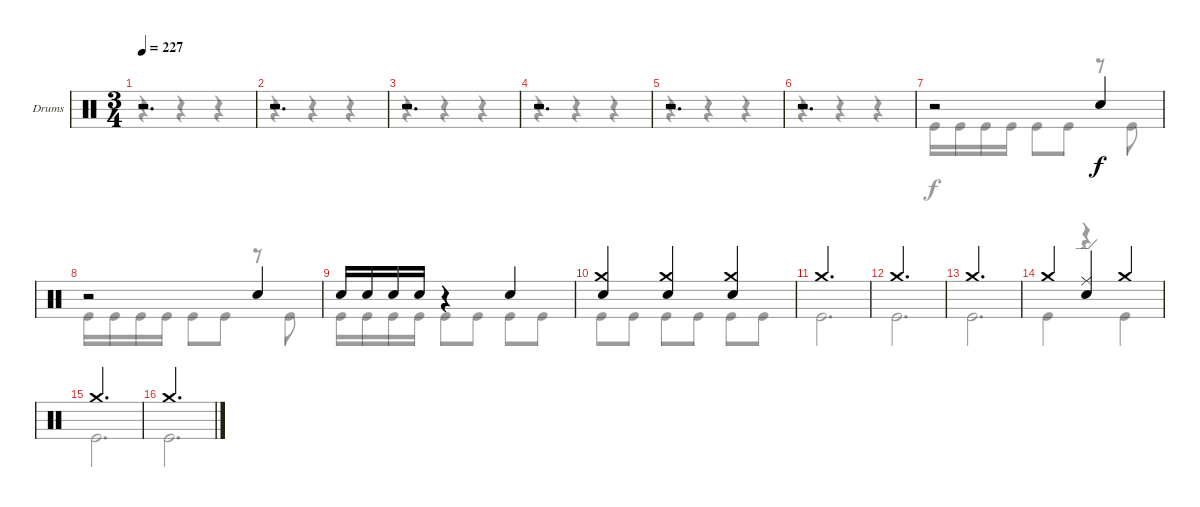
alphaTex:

\bracketExtendMode groupsimilarinstruments
\firstSystemTrackNameOrientation horizontal
\otherSystemsTrackNameOrientation horizontal
\track ("Drumkit" "Drums") {instrument percussion}
\staff {score}
\articulation defaults
\voice
\ts (3 4)
\tempo 227
\clef neutral
\ks c
r.2{d dy f} |
r.2{d} |
r.2{d} |
r.2{d} |
r.2{d} |
r.2{d} |
r.2 "Snare (hit) 2".4 |
r.2 "Snare (hit) 2".4 |
"Snare (hit) 2".16 "Snare (hit) 2".16 "Snare (hit) 2".16 "Snare (hit) 2".16 r.4 "Snare (hit) 2".4 |
("Crash medium (hit)" "Snare (hit) 2").4 ("Crash medium (hit)" "Snare (hit) 2").4 ("Crash medium (hit)" "Snare (hit) 2").4 |
"Crash medium (hit)".2{d} |
"Crash medium (hit)".2{d} |
"Crash medium (hit)".2{d} |
"Crash medium (hit)".4 ("Ride (edge)" "Snare (hit) 2").4 "Crash medium (hit)".4 |
"Crash medium (hit)".2{d} |
"Crash medium (hit)".2{d}
\voice
\clef neutral
\ottava regular
\simile none
\ks c
r.4{dy f} r.4 r.4 |
r.4 r.4 r.4 |
r.4 r.4 r.4 |
r.4 r.4 r.4 |
r.4 r.4 r.4 |
r.4 r.4 r.4 |
"Kick (hit)".16 "Kick (hit)".16 "Kick (hit)".16 "Kick (hit)".16 "Kick (hit)".8 "Kick (hit)".8 r.8 "Kick (hit)".8 |
"Kick (hit)".16 "Kick (hit)".16 "Kick (hit)".16 "Kick (hit)".16 "Kick (hit)".8 "Kick (hit)".8 r.8 "Kick (hit)".8 |
"Kick (hit)".16 "Kick (hit)".16 "Kick (hit)".16 "Kick (hit)".16 "Kick (hit)".8 "Kick (hit)".8 "Kick (hit)".8 "Kick (hit)".8 |
"Kick (hit)".8 "Kick (hit)".8 "Kick (hit)".8 "Kick (hit)".8 "Kick (hit)".8 "Kick (hit)".8 |
"Kick (hit)".2{d} |
"Kick (hit)".2{d} |
"Kick (hit)".2{d} |
"Kick (hit)".4 r.4 "Kick (hit)".4 |
"Kick (hit)".2{d} |
"Kick (hit)".2{d}
